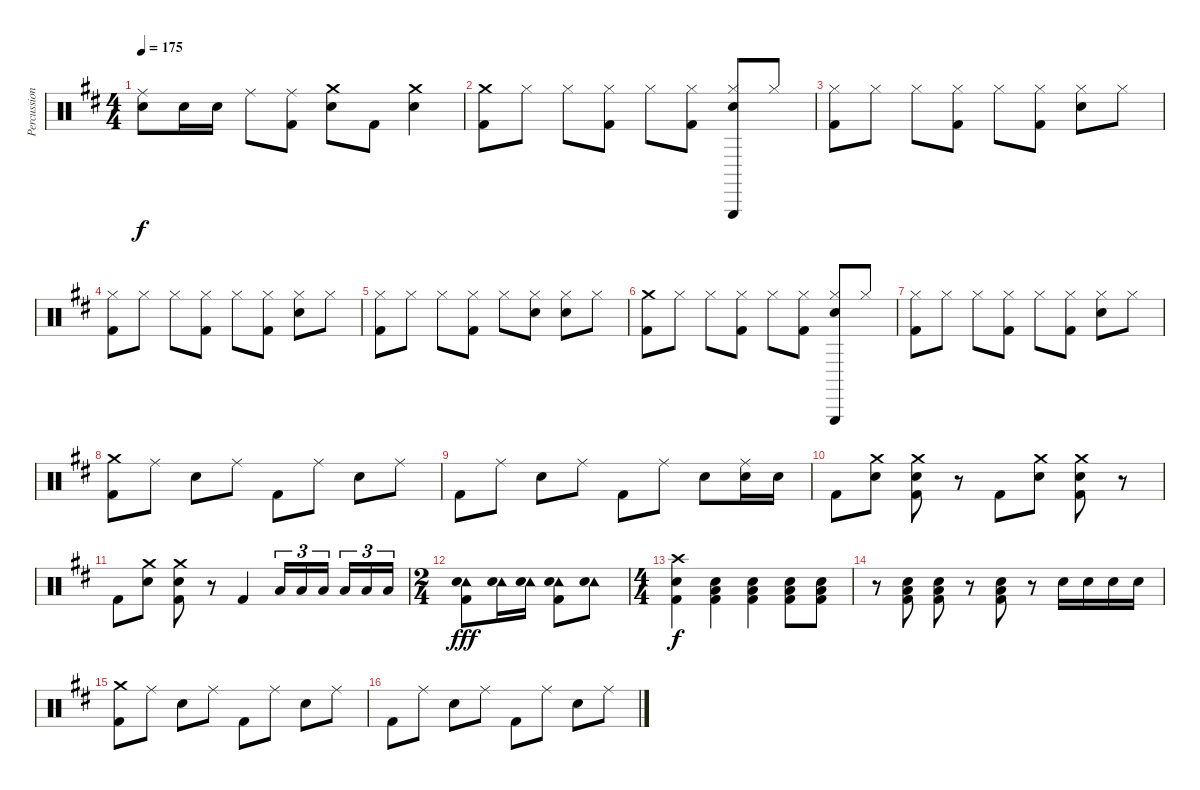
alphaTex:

\track ("Percussion" "Percussion") {instrument percussion}
\staff {score}
\articulation defaults
\ts (4 4)
\tempo 175
\clef neutral
\ks d
("Ride (middle)" "Electric Snare (hit)").8{dy f} "Electric Snare (hit)".16 "Electric Snare (hit)".16 "Ride (middle)".8 ("Ride (middle)" "Kick (hit) 2").8 ("Crash medium (hit)" "Electric Snare (hit)").8 "Kick (hit) 2".8 ("Crash medium (hit)" "Electric Snare (hit)").4 |
("Crash medium (hit)" "Kick (hit) 2").8 "Hi-Hat (closed)".8 "Hi-Hat (closed)".8 ("Hi-Hat (closed)" "Kick (hit) 2").8 "Hi-Hat (closed)".8 ("Hi-Hat (closed)" "Kick (hit) 2").8 ("Hi-Hat (closed)" "Electric Snare (hit)" "Triangle (hit)").8 "Hi-Hat (closed)".8 |
("Hi-Hat (closed)" "Kick (hit) 2").8 "Hi-Hat (closed)".8 "Hi-Hat (closed)".8 ("Hi-Hat (closed)" "Kick (hit) 2").8 "Hi-Hat (closed)".8 ("Hi-Hat (closed)" "Kick (hit) 2").8 ("Hi-Hat (closed)" "Electric Snare (hit)").8 "Hi-Hat (closed)".8 |
("Hi-Hat (closed)" "Kick (hit) 2").8 "Hi-Hat (closed)".8 "Hi-Hat (closed)".8 ("Hi-Hat (closed)" "Kick (hit) 2").8 "Hi-Hat (closed)".8 ("Hi-Hat (closed)" "Kick (hit) 2").8 ("Hi-Hat (closed)" "Electric Snare (hit)").8 "Hi-Hat (closed)".8 |
("Hi-Hat (closed)" "Kick (hit) 2").8 "Hi-Hat (closed)".8 "Hi-Hat (closed)".8 ("Hi-Hat (closed)" "Kick (hit) 2").8 "Hi-Hat (closed)".8 ("Hi-Hat (closed)" "Electric Snare (hit)").8 ("Hi-Hat (closed)" "Electric Snare (hit)").8 "Hi-Hat (closed)".8 |
("Crash medium (hit)" "Kick (hit) 2").8 "Hi-Hat (closed)".8 "Hi-Hat (closed)".8 ("Hi-Hat (closed)" "Kick (hit) 2").8 "Hi-Hat (closed)".8 ("Hi-Hat (closed)" "Kick (hit) 2").8 ("Hi-Hat (closed)" "Electric Snare (hit)" "Triangle (hit)").8 "Hi-Hat (closed)".8 |
("Hi-Hat (closed)" "Kick (hit) 2").8 "Hi-Hat (closed)".8 "Hi-Hat (closed)".8 ("Hi-Hat (closed)" "Kick (hit) 2").8 "Hi-Hat (closed)".8 ("Hi-Hat (closed)" "Kick (hit) 2").8 ("Hi-Hat (closed)" "Electric Snare (hit)").8 "Hi-Hat (closed)".8 |
("Crash medium (hit)" "Kick (hit) 2").8 "Ride (middle)".8 "Electric Snare (hit)".8 "Ride (middle)".8 "Kick (hit) 2".8 "Ride (middle)".8 "Electric Snare (hit)".8 "Ride (middle)".8 |
"Kick (hit) 2".8 "Ride (middle)".8 "Electric Snare (hit)".8 "Ride (middle)".8 "Kick (hit) 2".8 "Ride (middle)".8 "Electric Snare (hit)".8 ("Ride (middle)" "Electric Snare (hit)").16 "Electric Snare (hit)".16 |
"Kick (hit) 2".8 ("Crash medium (hit)" "Electric Snare (hit)").8 ("Crash medium (hit)" "Electric Snare (hit)" "Kick (hit) 2").8 r.8 "Kick (hit) 2".8 ("Crash medium (hit)" "Electric Snare (hit)").8 ("Crash medium (hit)" "Electric Snare (hit)" "Kick (hit) 2").8 r.8 |
"Kick (hit) 2".8 ("Crash medium (hit)" "Electric Snare (hit)").8 ("Crash medium (hit)" "Electric Snare (hit)" "Kick (hit) 2").8 r.8 "Kick (hit) 2".4 "Low Floor Tom (hit)".16{tu (3 2)} "Low Floor Tom (hit)".16{tu (3 2)} "Low Floor Tom (hit)".16{tu (3 2) beam splitsecondary} "Low Floor Tom (hit)".16{tu (3 2)} "Low Floor Tom (hit)".16{tu (3 2)} "Low Floor Tom (hit)".16{tu (3 2)} |
\ts (2 4)
("Tambourine (hit)" "Electric Snare (hit)" "Kick (hit) 2").8{dy fff} ("Tambourine (hit)" "Electric Snare (hit)").16 ("Tambourine (hit)" "Electric Snare (hit)").16 ("Tambourine (hit)" "Electric Snare (hit)" "Kick (hit) 2").8 ("Tambourine (hit)" "Electric Snare (hit)").8 |
\ts (4 4)
("Crash high (hit)" "Electric Snare (hit)" "Kick (hit) 2").4{dy f} ("Low Floor Tom (hit)" "Electric Snare (hit)" "Kick (hit) 2").4 ("Low Floor Tom (hit)" "Electric Snare (hit)" "Kick (hit) 2").4 ("Low Floor Tom (hit)" "Electric Snare (hit)" "Kick (hit) 2").8 ("Low Floor Tom (hit)" "Electric Snare (hit)" "Kick (hit) 2").8 |
r.8 ("Low Floor Tom (hit)" "Electric Snare (hit)" "Kick (hit) 2").8 ("Low Floor Tom (hit)" "Electric Snare (hit)" "Kick (hit) 2").8 r.8 ("Low Floor Tom (hit)" "Electric Snare (hit)" "Kick (hit) 2").8 r.8 "Electric Snare (hit)".16 "Electric Snare (hit)".16 "Electric Snare (hit)".16 "Electric Snare (hit)".16 |
("Crash medium (hit)" "Kick (hit) 2").8 "Ride (middle)".8 "Electric Snare (hit)".8 "Ride (middle)".8 "Kick (hit) 2".8 "Ride (middle)".8 "Electric Snare (hit)".8 "Ride (middle)".8 |
"Kick (hit) 2".8 "Ride (middle)".8 "Electric Snare (hit)".8 "Ride (middle)".8 "Kick (hit) 2".8 "Ride (middle)".8 "Electric Snare (hit)".8 "Ride (middle)".8
